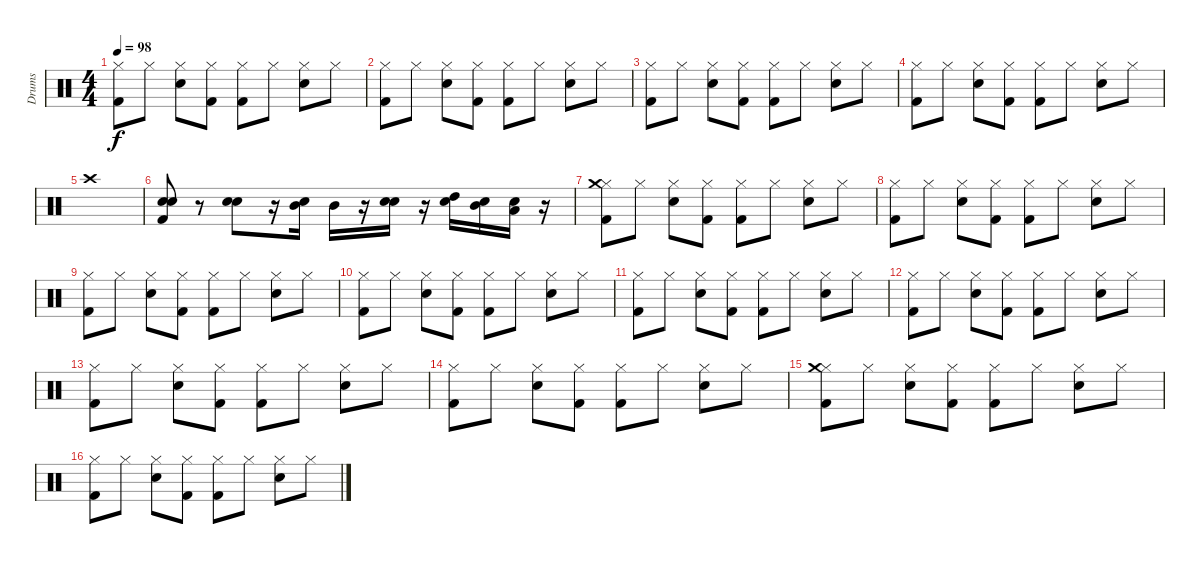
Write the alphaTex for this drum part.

\track ("Drums" "Drums") {instrument percussion}
\staff {score}
\articulation defaults
\ts (4 4)
\tempo 98
\clef neutral
\ks c
("Hi-Hat (closed)" "Kick (hit) 2").8{dy f} "Hi-Hat (closed)".8 ("Hi-Hat (closed)" "Electric Snare (hit)").8 ("Hi-Hat (closed)" "Kick (hit) 2").8 ("Hi-Hat (closed)" "Kick (hit) 2").8 "Hi-Hat (closed)".8 ("Hi-Hat (closed)" "Electric Snare (hit)").8 "Hi-Hat (closed)".8 |
("Hi-Hat (closed)" "Kick (hit) 2").8 "Hi-Hat (closed)".8 ("Hi-Hat (closed)" "Electric Snare (hit)").8 ("Hi-Hat (closed)" "Kick (hit) 2").8 ("Hi-Hat (closed)" "Kick (hit) 2").8 "Hi-Hat (closed)".8 ("Hi-Hat (closed)" "Electric Snare (hit)").8 "Hi-Hat (closed)".8 |
("Hi-Hat (closed)" "Kick (hit) 2").8 "Hi-Hat (closed)".8 ("Hi-Hat (closed)" "Electric Snare (hit)").8 ("Hi-Hat (closed)" "Kick (hit) 2").8 ("Hi-Hat (closed)" "Kick (hit) 2").8 "Hi-Hat (closed)".8 ("Hi-Hat (closed)" "Electric Snare (hit)").8 "Hi-Hat (closed)".8 |
("Hi-Hat (closed)" "Kick (hit) 2").8 "Hi-Hat (closed)".8 ("Hi-Hat (closed)" "Electric Snare (hit)").8 ("Hi-Hat (closed)" "Kick (hit) 2").8 ("Hi-Hat (closed)" "Kick (hit) 2").8 "Hi-Hat (closed)".8 ("Hi-Hat (closed)" "Electric Snare (hit)").8 "Hi-Hat (closed)".8 |
"Crash high (hit)".1 |
("Electric Snare (hit)" "Electric Snare (hit)" "Kick (hit) 2").8 r.8 ("Electric Snare (hit)" "Electric Snare (hit)").8 r.16 ("Mid Tom (hit)" "Electric Snare (hit)").16 "Mid Tom (hit)".16 r.16 ("Electric Snare (hit)" "Electric Snare (hit)").16 r.16 ("Electric Snare (hit)" "High Tom (hit)").16 ("Electric Snare (hit)" "Mid Tom (hit)").16 ("Electric Snare (hit)" "Low Tom (hit)").16 r.16 |
("Hi-Hat (closed)" "Crash medium (hit)" "Kick (hit) 2").8 "Hi-Hat (closed)".8 ("Hi-Hat (closed)" "Electric Snare (hit)").8 ("Hi-Hat (closed)" "Kick (hit) 2").8 ("Hi-Hat (closed)" "Kick (hit) 2").8 "Hi-Hat (closed)".8 ("Hi-Hat (closed)" "Electric Snare (hit)").8 "Hi-Hat (closed)".8 |
("Hi-Hat (closed)" "Kick (hit) 2").8 "Hi-Hat (closed)".8 ("Hi-Hat (closed)" "Electric Snare (hit)").8 ("Hi-Hat (closed)" "Kick (hit) 2").8 ("Hi-Hat (closed)" "Kick (hit) 2").8 "Hi-Hat (closed)".8 ("Hi-Hat (closed)" "Electric Snare (hit)").8 "Hi-Hat (closed)".8 |
("Hi-Hat (closed)" "Kick (hit) 2").8 "Hi-Hat (closed)".8 ("Hi-Hat (closed)" "Electric Snare (hit)").8 ("Hi-Hat (closed)" "Kick (hit) 2").8 ("Hi-Hat (closed)" "Kick (hit) 2").8 "Hi-Hat (closed)".8 ("Hi-Hat (closed)" "Electric Snare (hit)").8 "Hi-Hat (closed)".8 |
("Hi-Hat (closed)" "Kick (hit) 2").8 "Hi-Hat (closed)".8 ("Hi-Hat (closed)" "Electric Snare (hit)").8 ("Hi-Hat (closed)" "Kick (hit) 2").8 ("Hi-Hat (closed)" "Kick (hit) 2").8 "Hi-Hat (closed)".8 ("Hi-Hat (closed)" "Electric Snare (hit)").8 "Hi-Hat (closed)".8 |
("Hi-Hat (closed)" "Kick (hit) 2").8 "Hi-Hat (closed)".8 ("Hi-Hat (closed)" "Electric Snare (hit)").8 ("Hi-Hat (closed)" "Kick (hit) 2").8 ("Hi-Hat (closed)" "Kick (hit) 2").8 "Hi-Hat (closed)".8 ("Hi-Hat (closed)" "Electric Snare (hit)").8 "Hi-Hat (closed)".8 |
("Hi-Hat (closed)" "Kick (hit) 2").8 "Hi-Hat (closed)".8 ("Hi-Hat (closed)" "Electric Snare (hit)").8 ("Hi-Hat (closed)" "Kick (hit) 2").8 ("Hi-Hat (closed)" "Kick (hit) 2").8 "Hi-Hat (closed)".8 ("Hi-Hat (closed)" "Electric Snare (hit)").8 "Hi-Hat (closed)".8 |
("Hi-Hat (closed)" "Kick (hit) 2").8 "Hi-Hat (closed)".8 ("Hi-Hat (closed)" "Electric Snare (hit)").8 ("Hi-Hat (closed)" "Kick (hit) 2").8 ("Hi-Hat (closed)" "Kick (hit) 2").8 "Hi-Hat (closed)".8 ("Hi-Hat (closed)" "Electric Snare (hit)").8 "Hi-Hat (closed)".8 |
("Hi-Hat (closed)" "Kick (hit) 2").8 "Hi-Hat (closed)".8 ("Hi-Hat (closed)" "Electric Snare (hit)").8 ("Hi-Hat (closed)" "Kick (hit) 2").8 ("Hi-Hat (closed)" "Kick (hit) 2").8 "Hi-Hat (closed)".8 ("Hi-Hat (closed)" "Electric Snare (hit)").8 "Hi-Hat (closed)".8 |
("Hi-Hat (closed)" "Crash medium (hit)" "Kick (hit) 2").8 "Hi-Hat (closed)".8 ("Hi-Hat (closed)" "Electric Snare (hit)").8 ("Hi-Hat (closed)" "Kick (hit) 2").8 ("Hi-Hat (closed)" "Kick (hit) 2").8 "Hi-Hat (closed)".8 ("Hi-Hat (closed)" "Electric Snare (hit)").8 "Hi-Hat (closed)".8 |
("Hi-Hat (closed)" "Kick (hit) 2").8 "Hi-Hat (closed)".8 ("Hi-Hat (closed)" "Electric Snare (hit)").8 ("Hi-Hat (closed)" "Kick (hit) 2").8 ("Hi-Hat (closed)" "Kick (hit) 2").8 "Hi-Hat (closed)".8 ("Hi-Hat (closed)" "Electric Snare (hit)").8 "Hi-Hat (closed)".8
